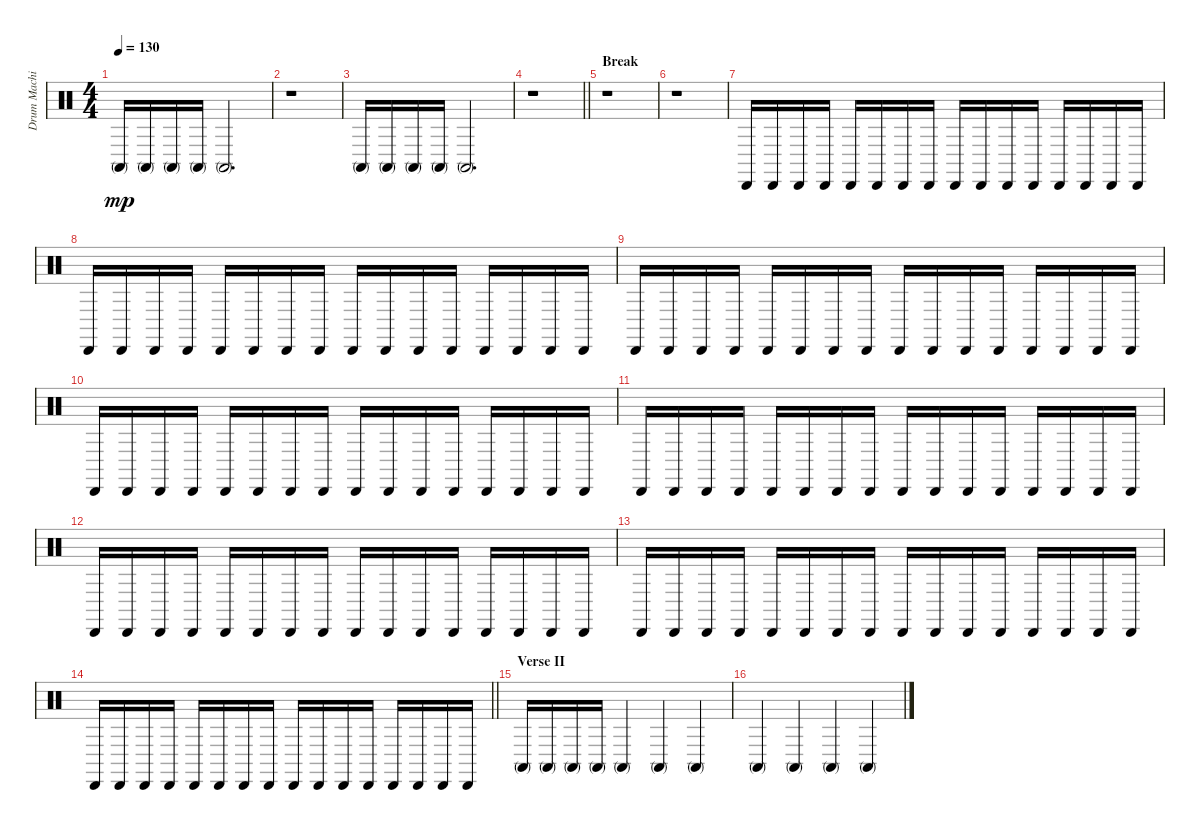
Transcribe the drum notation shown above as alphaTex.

\track ("Drum Machine" "Drum Machi") {instrument percussion}
\staff {score}
\articulation defaults
\ts (4 4)
\tempo 130
\clef neutral
\ks c "Conga high (mute)".16{dy mp} "Conga high (mute)".16 "Conga high (mute)".16 "Conga high (mute)".16 "Conga high (mute)".2{d}
|
r.1 |
"Conga high (mute)".16 "Conga high (mute)".16 "Conga high (mute)".16 "Conga high (mute)".16 "Conga high (mute)".2{d} |
\barLineRight lightlight
r.1 |
\section ("" "Break")
r.1 |
r.1 |
"Cabasa (hit)".16 "Cabasa (hit)".16 "Cabasa (hit)".16 "Cabasa (hit)".16 "Cabasa (hit)".16 "Cabasa (hit)".16 "Cabasa (hit)".16 "Cabasa (hit)".16 "Cabasa (hit)".16 "Cabasa (hit)".16 "Cabasa (hit)".16 "Cabasa (hit)".16 "Cabasa (hit)".16 "Cabasa (hit)".16 "Cabasa (hit)".16 "Cabasa (hit)".16 |
"Cabasa (hit)".16 "Cabasa (hit)".16 "Cabasa (hit)".16 "Cabasa (hit)".16 "Cabasa (hit)".16 "Cabasa (hit)".16 "Cabasa (hit)".16 "Cabasa (hit)".16 "Cabasa (hit)".16 "Cabasa (hit)".16 "Cabasa (hit)".16 "Cabasa (hit)".16 "Cabasa (hit)".16 "Cabasa (hit)".16 "Cabasa (hit)".16 "Cabasa (hit)".16 |
"Cabasa (hit)".16 "Cabasa (hit)".16 "Cabasa (hit)".16 "Cabasa (hit)".16 "Cabasa (hit)".16 "Cabasa (hit)".16 "Cabasa (hit)".16 "Cabasa (hit)".16 "Cabasa (hit)".16 "Cabasa (hit)".16 "Cabasa (hit)".16 "Cabasa (hit)".16 "Cabasa (hit)".16 "Cabasa (hit)".16 "Cabasa (hit)".16 "Cabasa (hit)".16 |
"Cabasa (hit)".16 "Cabasa (hit)".16 "Cabasa (hit)".16 "Cabasa (hit)".16 "Cabasa (hit)".16 "Cabasa (hit)".16 "Cabasa (hit)".16 "Cabasa (hit)".16 "Cabasa (hit)".16 "Cabasa (hit)".16 "Cabasa (hit)".16 "Cabasa (hit)".16 "Cabasa (hit)".16 "Cabasa (hit)".16 "Cabasa (hit)".16 "Cabasa (hit)".16 |
"Cabasa (hit)".16 "Cabasa (hit)".16 "Cabasa (hit)".16 "Cabasa (hit)".16 "Cabasa (hit)".16 "Cabasa (hit)".16 "Cabasa (hit)".16 "Cabasa (hit)".16 "Cabasa (hit)".16 "Cabasa (hit)".16 "Cabasa (hit)".16 "Cabasa (hit)".16 "Cabasa (hit)".16 "Cabasa (hit)".16 "Cabasa (hit)".16 "Cabasa (hit)".16 |
"Cabasa (hit)".16 "Cabasa (hit)".16 "Cabasa (hit)".16 "Cabasa (hit)".16 "Cabasa (hit)".16 "Cabasa (hit)".16 "Cabasa (hit)".16 "Cabasa (hit)".16 "Cabasa (hit)".16 "Cabasa (hit)".16 "Cabasa (hit)".16 "Cabasa (hit)".16 "Cabasa (hit)".16 "Cabasa (hit)".16 "Cabasa (hit)".16 "Cabasa (hit)".16 |
"Cabasa (hit)".16 "Cabasa (hit)".16 "Cabasa (hit)".16 "Cabasa (hit)".16 "Cabasa (hit)".16 "Cabasa (hit)".16 "Cabasa (hit)".16 "Cabasa (hit)".16 "Cabasa (hit)".16 "Cabasa (hit)".16 "Cabasa (hit)".16 "Cabasa (hit)".16 "Cabasa (hit)".16 "Cabasa (hit)".16 "Cabasa (hit)".16 "Cabasa (hit)".16 |
\barLineRight lightlight "Cabasa (hit)".16 "Cabasa (hit)".16 "Cabasa (hit)".16 "Cabasa (hit)".16 "Cabasa (hit)".16 "Cabasa (hit)".16 "Cabasa (hit)".16 "Cabasa (hit)".16 "Cabasa (hit)".16 "Cabasa (hit)".16 "Cabasa (hit)".16 "Cabasa (hit)".16 "Cabasa (hit)".16 "Cabasa (hit)".16 "Cabasa (hit)".16 "Cabasa (hit)".16
|
\section ("" "Verse II")
"Conga high (mute)".16 "Conga high (mute)".16 "Conga high (mute)".16 "Conga high (mute)".16 "Conga high (mute)".4 "Conga high (mute)".4 "Conga high (mute)".4 |
"Conga high (mute)".4 "Conga high (mute)".4 "Conga high (mute)".4 "Conga high (mute)".4
